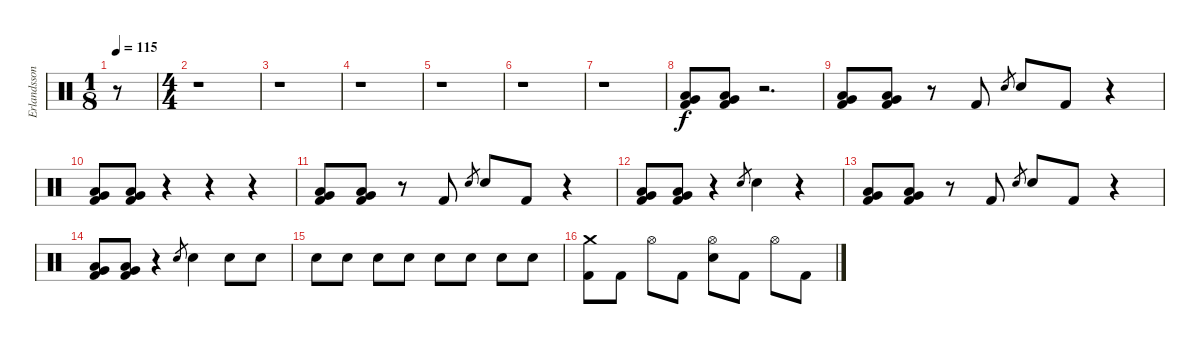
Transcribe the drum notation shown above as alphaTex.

\track ("Erlandsson" "Erlandsson") {instrument percussion}
\staff {score}
\articulation defaults
\ts (1 8)
\tempo 115
\clef neutral
\ks c
r.8{dy f} |
\ts (4 4)
r.1 |
r.1 |
r.1 |
r.1 |
r.1 |
r.1 |
("Very Low Tom (hit)" "Low Floor Tom (hit)" "Kick (hit) 2").8 ("Very Low Tom (hit)" "Low Floor Tom (hit)" "Kick (hit) 2").8 r.2{d} |
("Very Low Tom (hit)" "Low Floor Tom (hit)" "Kick (hit) 2").8 ("Very Low Tom (hit)" "Low Floor Tom (hit)" "Kick (hit) 2").8 r.8 "Kick (hit) 2".8 "Electric Snare (hit)".8{gr} "Electric Snare (hit)".8 "Kick (hit) 2".8 r.4 |
("Very Low Tom (hit)" "Low Floor Tom (hit)" "Kick (hit) 2").8 ("Very Low Tom (hit)" "Low Floor Tom (hit)" "Kick (hit) 2").8 r.4 r.4 r.4 |
("Very Low Tom (hit)" "Low Floor Tom (hit)" "Kick (hit) 2").8 ("Very Low Tom (hit)" "Low Floor Tom (hit)" "Kick (hit) 2").8 r.8 "Kick (hit) 2".8 "Electric Snare (hit)".8{gr} "Electric Snare (hit)".8 "Kick (hit) 2".8 r.4 |
("Very Low Tom (hit)" "Low Floor Tom (hit)" "Kick (hit) 2").8 ("Very Low Tom (hit)" "Low Floor Tom (hit)" "Kick (hit) 2").8 r.4 "Electric Snare (hit)".8{gr} "Electric Snare (hit)".4 r.4 |
("Very Low Tom (hit)" "Low Floor Tom (hit)" "Kick (hit) 2").8 ("Very Low Tom (hit)" "Low Floor Tom (hit)" "Kick (hit) 2").8 r.8 "Kick (hit) 2".8 "Electric Snare (hit)".8{gr} "Electric Snare (hit)".8 "Kick (hit) 2".8 r.4 |
("Very Low Tom (hit)" "Low Floor Tom (hit)" "Kick (hit) 2").8 ("Very Low Tom (hit)" "Low Floor Tom (hit)" "Kick (hit) 2").8 r.4 "Electric Snare (hit)".8{gr} "Electric Snare (hit)".4 "Electric Snare (hit)".8 "Electric Snare (hit)".8 |
"Electric Snare (hit)".8 "Electric Snare (hit)".8 "Electric Snare (hit)".8 "Electric Snare (hit)".8 "Electric Snare (hit)".8 "Electric Snare (hit)".8 "Electric Snare (hit)".8 "Electric Snare (hit)".8 |
("Crash medium (hit)" "Kick (hit) 2").8 "Kick (hit) 2".8 "Hi-Hat (open)".8 "Kick (hit) 2".8 ("Hi-Hat (open)" "Electric Snare (hit)").8 "Kick (hit) 2".8 "Hi-Hat (open)".8 "Kick (hit) 2".8
